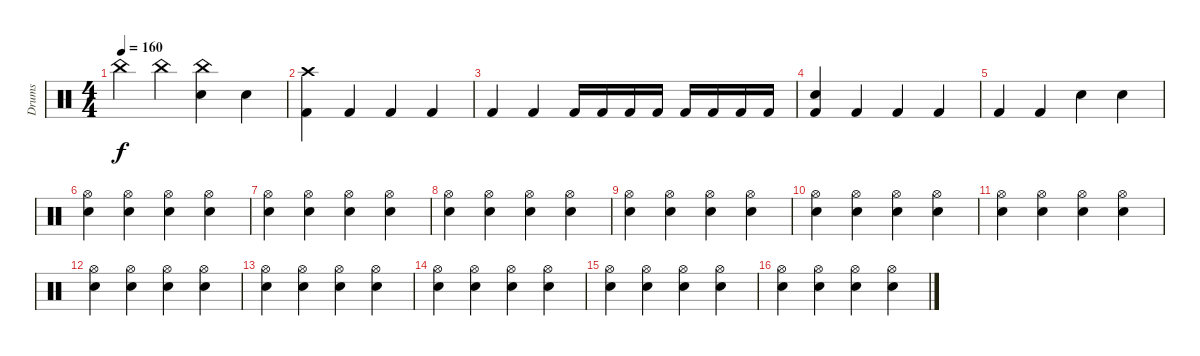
\track ("Drums" "Drums") {instrument percussion}
\staff {score}
\articulation defaults
\ts (4 4)
\tempo 160
\clef neutral
\ks c "China (hit)".4{dy f} "China (hit)".4
("China (hit)" "Electric Snare (hit)").4 "Electric Snare (hit)".4 |
("Crash high (hit)" "Kick (hit) 2").4 "Kick (hit) 2".4 "Kick (hit) 2".4 "Kick (hit) 2".4 |
"Kick (hit) 2".4 "Kick (hit) 2".4 "Kick (hit) 2".16 "Kick (hit) 2".16 "Kick (hit) 2".16 "Kick (hit) 2".16 "Kick (hit) 2".16 "Kick (hit) 2".16 "Kick (hit) 2".16 "Kick (hit) 2".16 |
("Electric Snare (hit)" "Kick (hit) 2").4 "Kick (hit) 2".4 "Kick (hit) 2".4 "Kick (hit) 2".4 |
"Kick (hit) 2".4 "Kick (hit) 2".4 "Electric Snare (hit)".4 "Electric Snare (hit)".4 |
("Hi-Hat (open)" "Electric Snare (hit)").4 ("Hi-Hat (open)" "Electric Snare (hit)").4 ("Hi-Hat (open)" "Electric Snare (hit)").4 ("Hi-Hat (open)" "Electric Snare (hit)").4 |
("Hi-Hat (open)" "Electric Snare (hit)").4 ("Hi-Hat (open)" "Electric Snare (hit)").4 ("Hi-Hat (open)" "Electric Snare (hit)").4 ("Hi-Hat (open)" "Electric Snare (hit)").4 |
("Hi-Hat (open)" "Electric Snare (hit)").4 ("Hi-Hat (open)" "Electric Snare (hit)").4 ("Hi-Hat (open)" "Electric Snare (hit)").4 ("Hi-Hat (open)" "Electric Snare (hit)").4 |
("Hi-Hat (open)" "Electric Snare (hit)").4 ("Hi-Hat (open)" "Electric Snare (hit)").4 ("Hi-Hat (open)" "Electric Snare (hit)").4 ("Hi-Hat (open)" "Electric Snare (hit)").4 |
("Hi-Hat (open)" "Electric Snare (hit)").4 ("Hi-Hat (open)" "Electric Snare (hit)").4 ("Hi-Hat (open)" "Electric Snare (hit)").4 ("Hi-Hat (open)" "Electric Snare (hit)").4 |
("Hi-Hat (open)" "Electric Snare (hit)").4 ("Hi-Hat (open)" "Electric Snare (hit)").4 ("Hi-Hat (open)" "Electric Snare (hit)").4 ("Hi-Hat (open)" "Electric Snare (hit)").4 |
("Hi-Hat (open)" "Electric Snare (hit)").4 ("Hi-Hat (open)" "Electric Snare (hit)").4 ("Hi-Hat (open)" "Electric Snare (hit)").4 ("Hi-Hat (open)" "Electric Snare (hit)").4 |
("Hi-Hat (open)" "Electric Snare (hit)").4 ("Hi-Hat (open)" "Electric Snare (hit)").4 ("Hi-Hat (open)" "Electric Snare (hit)").4 ("Hi-Hat (open)" "Electric Snare (hit)").4 |
("Hi-Hat (open)" "Electric Snare (hit)").4 ("Hi-Hat (open)" "Electric Snare (hit)").4 ("Hi-Hat (open)" "Electric Snare (hit)").4 ("Hi-Hat (open)" "Electric Snare (hit)").4 |
("Hi-Hat (open)" "Electric Snare (hit)").4 ("Hi-Hat (open)" "Electric Snare (hit)").4 ("Hi-Hat (open)" "Electric Snare (hit)").4 ("Hi-Hat (open)" "Electric Snare (hit)").4 |
("Hi-Hat (open)" "Electric Snare (hit)").4 ("Hi-Hat (open)" "Electric Snare (hit)").4 ("Hi-Hat (open)" "Electric Snare (hit)").4 ("Hi-Hat (open)" "Electric Snare (hit)").4
